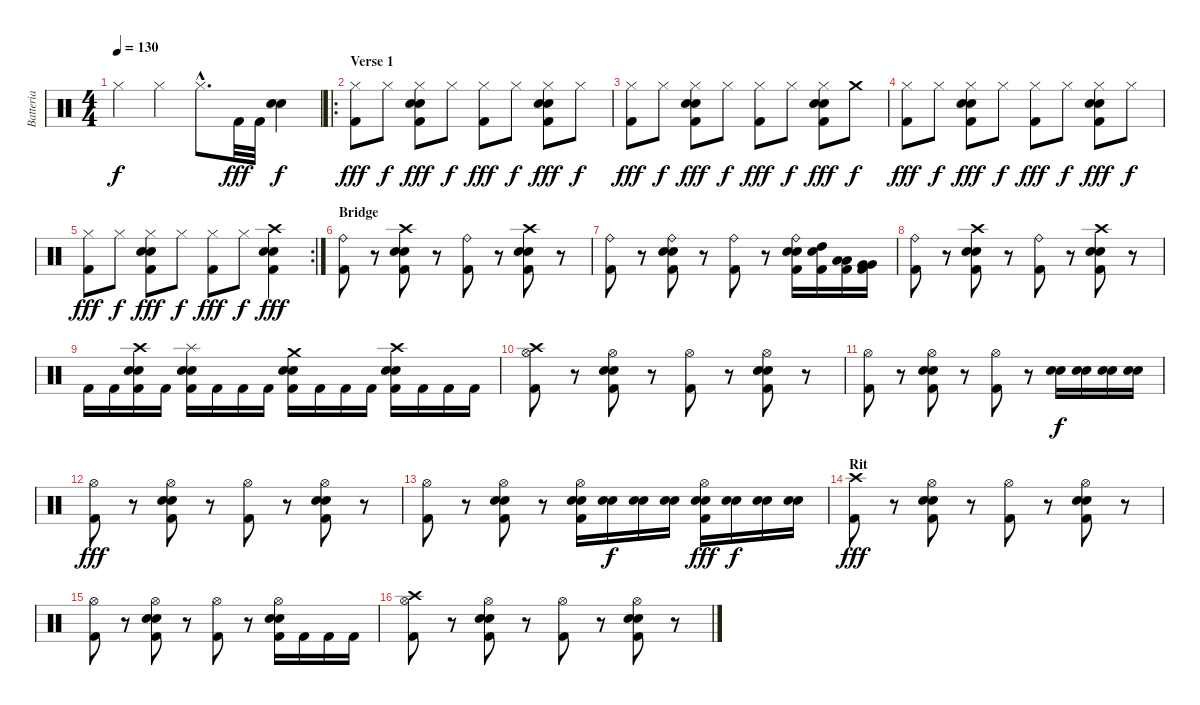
\track ("Batteria" "Batteria") {instrument percussion}
\staff {score}
\articulation defaults
\ts (4 4)
\tempo 130
\clef neutral
\ks c "Hi-Hat (closed)".4{dy f} "Hi-Hat (closed)".4 "Hi-Hat (closed)"{hac}.8{d} "Kick (hit) 2".32{dy fff} "Kick (hit) 2".32
("Electric Snare (hit)" "Snare (hit) 2").4{dy f} |
\ro
\section ("" "Verse 1")
("Hi-Hat (closed)" "Kick (hit) 2").8{dy fff} "Hi-Hat (closed)".8{dy f} ("Hi-Hat (closed)" "Electric Snare (hit)" "Snare (hit) 2" "Kick (hit) 2").8{dy fff} "Hi-Hat (closed)".8{dy f} ("Hi-Hat (closed)" "Kick (hit) 2").8{dy fff} "Hi-Hat (closed)".8{dy f} ("Hi-Hat (closed)" "Electric Snare (hit)" "Snare (hit) 2" "Kick (hit) 2").8{dy fff} "Hi-Hat (closed)".8{dy f} |
("Hi-Hat (closed)" "Kick (hit) 2").8{dy fff} "Hi-Hat (closed)".8{dy f} ("Hi-Hat (closed)" "Electric Snare (hit)" "Snare (hit) 2" "Kick (hit) 2").8{dy fff} "Hi-Hat (closed)".8{dy f} ("Hi-Hat (closed)" "Kick (hit) 2").8{dy fff} "Hi-Hat (closed)".8{dy f} ("Hi-Hat (closed)" "Electric Snare (hit)" "Snare (hit) 2" "Kick (hit) 2").8{dy fff} "Crash medium (hit)".8{dy f} |
("Hi-Hat (closed)" "Kick (hit) 2").8{dy fff} "Hi-Hat (closed)".8{dy f} ("Hi-Hat (closed)" "Electric Snare (hit)" "Snare (hit) 2" "Kick (hit) 2").8{dy fff} "Hi-Hat (closed)".8{dy f} ("Hi-Hat (closed)" "Kick (hit) 2").8{dy fff} "Hi-Hat (closed)".8{dy f} ("Hi-Hat (closed)" "Electric Snare (hit)" "Snare (hit) 2" "Kick (hit) 2").8{dy fff} "Hi-Hat (closed)".8{dy f} |
\rc 2
("Hi-Hat (closed)" "Kick (hit) 2").8{dy fff} "Hi-Hat (closed)".8{dy f} ("Hi-Hat (closed)" "Electric Snare (hit)" "Snare (hit) 2" "Kick (hit) 2").8{dy fff} "Hi-Hat (closed)".8{dy f} ("Hi-Hat (closed)" "Kick (hit) 2").8{dy fff} "Hi-Hat (closed)".8{dy f} ("Crash high (hit)" "Electric Snare (hit)" "Snare (hit) 2" "Kick (hit) 2").4{dy fff} |
\section ("" "Bridge")
("Ride (bell)" "Kick (hit) 2").8 r.8 ("Crash high (hit)" "Electric Snare (hit)" "Snare (hit) 2" "Kick (hit) 2").8 r.8 ("Ride (bell)" "Kick (hit) 2").8 r.8 ("Crash high (hit)" "Electric Snare (hit)" "Snare (hit) 2" "Kick (hit) 2").8 r.8 |
("Ride (bell)" "Kick (hit) 2").8 r.8 ("Ride (bell)" "Electric Snare (hit)" "Snare (hit) 2" "Kick (hit) 2").8 r.8 ("Ride (bell)" "Kick (hit) 2").8 r.8 ("Ride (bell)" "Electric Snare (hit)" "Snare (hit) 2" "Kick (hit) 2").16 ("Electric Snare (hit)" "High Tom (hit)" "Kick (hit) 2").16 ("Low Tom (hit)" "Low Tom (hit)" "Kick (hit) 2").16 ("Very Low Tom (hit)" "Very Low Tom (hit)" "Kick (hit) 2").16 |
("Ride (bell)" "Kick (hit) 2").8 r.8 ("Crash high (hit)" "Electric Snare (hit)" "Snare (hit) 2" "Kick (hit) 2").8 r.8 ("Ride (bell)" "Kick (hit) 2").8 r.8 ("Crash high (hit)" "Electric Snare (hit)" "Snare (hit) 2" "Kick (hit) 2").8 r.8 |
"Kick (hit) 2".16 "Kick (hit) 2".16 ("Crash high (hit)" "Electric Snare (hit)" "Snare (hit) 2" "Kick (hit) 2").16 "Kick (hit) 2".16 ("Splash (hit)" "Electric Snare (hit)" "Snare (hit) 2" "Kick (hit) 2").16 "Kick (hit) 2".16 "Kick (hit) 2".16 "Kick (hit) 2".16 ("Crash medium (hit)" "Electric Snare (hit)" "Snare (hit) 2" "Kick (hit) 2").16 "Kick (hit) 2".16 "Kick (hit) 2".16 "Kick (hit) 2".16 ("Crash high (hit)" "Electric Snare (hit)" "Snare (hit) 2" "Kick (hit) 2").16 "Kick (hit) 2".16 "Kick (hit) 2".16 "Kick (hit) 2".16 |
("Crash high (hit)" "Hi-Hat (open)" "Kick (hit) 2").8 r.8 ("Hi-Hat (open)" "Electric Snare (hit)" "Snare (hit) 2" "Kick (hit) 2").8 r.8 ("Hi-Hat (open)" "Kick (hit) 2").8 r.8 ("Hi-Hat (open)" "Electric Snare (hit)" "Snare (hit) 2" "Kick (hit) 2").8 r.8 |
("Hi-Hat (open)" "Kick (hit) 2").8 r.8 ("Hi-Hat (open)" "Electric Snare (hit)" "Snare (hit) 2" "Kick (hit) 2").8 r.8 ("Hi-Hat (open)" "Kick (hit) 2").8 r.8 ("Electric Snare (hit)" "Snare (hit) 2").16{dy f} ("Electric Snare (hit)" "Snare (hit) 2").16 ("Electric Snare (hit)" "Snare (hit) 2").16 ("Electric Snare (hit)" "Snare (hit) 2").16 |
("Hi-Hat (open)" "Kick (hit) 2").8{dy fff} r.8 ("Hi-Hat (open)" "Electric Snare (hit)" "Snare (hit) 2" "Kick (hit) 2").8 r.8 ("Hi-Hat (open)" "Kick (hit) 2").8 r.8 ("Hi-Hat (open)" "Electric Snare (hit)" "Snare (hit) 2" "Kick (hit) 2").8 r.8 |
("Hi-Hat (open)" "Kick (hit) 2").8 r.8 ("Hi-Hat (open)" "Electric Snare (hit)" "Snare (hit) 2" "Kick (hit) 2").8 r.8 ("Hi-Hat (open)" "Electric Snare (hit)" "Snare (hit) 2" "Kick (hit) 2").16 ("Electric Snare (hit)" "Snare (hit) 2").16{dy f} ("Electric Snare (hit)" "Snare (hit) 2").16 ("Electric Snare (hit)" "Snare (hit) 2").16 ("Hi-Hat (open)" "Electric Snare (hit)" "Snare (hit) 2" "Kick (hit) 2").16{dy fff} ("Electric Snare (hit)" "Snare (hit) 2").16{dy f} ("Electric Snare (hit)" "Snare (hit) 2").16 ("Electric Snare (hit)" "Snare (hit) 2").16 |
\section ("" "Rit")
("Crash high (hit)" "Kick (hit) 2").8{dy fff} r.8 ("Hi-Hat (open)" "Electric Snare (hit)" "Snare (hit) 2" "Kick (hit) 2").8 r.8 ("Hi-Hat (open)" "Kick (hit) 2").8 r.8 ("Hi-Hat (open)" "Electric Snare (hit)" "Snare (hit) 2" "Kick (hit) 2").8 r.8 |
("Hi-Hat (open)" "Kick (hit) 2").8 r.8 ("Hi-Hat (open)" "Electric Snare (hit)" "Snare (hit) 2" "Kick (hit) 2").8 r.8 ("Hi-Hat (open)" "Kick (hit) 2").8 r.8 ("Hi-Hat (open)" "Electric Snare (hit)" "Snare (hit) 2" "Kick (hit) 2").16 "Kick (hit) 2".16 "Kick (hit) 2".16 "Kick (hit) 2".16 |
("Crash high (hit)" "Hi-Hat (open)" "Kick (hit) 2").8 r.8 ("Hi-Hat (open)" "Electric Snare (hit)" "Snare (hit) 2" "Kick (hit) 2").8 r.8 ("Hi-Hat (open)" "Kick (hit) 2").8 r.8 ("Hi-Hat (open)" "Electric Snare (hit)" "Snare (hit) 2" "Kick (hit) 2").8 r.8
